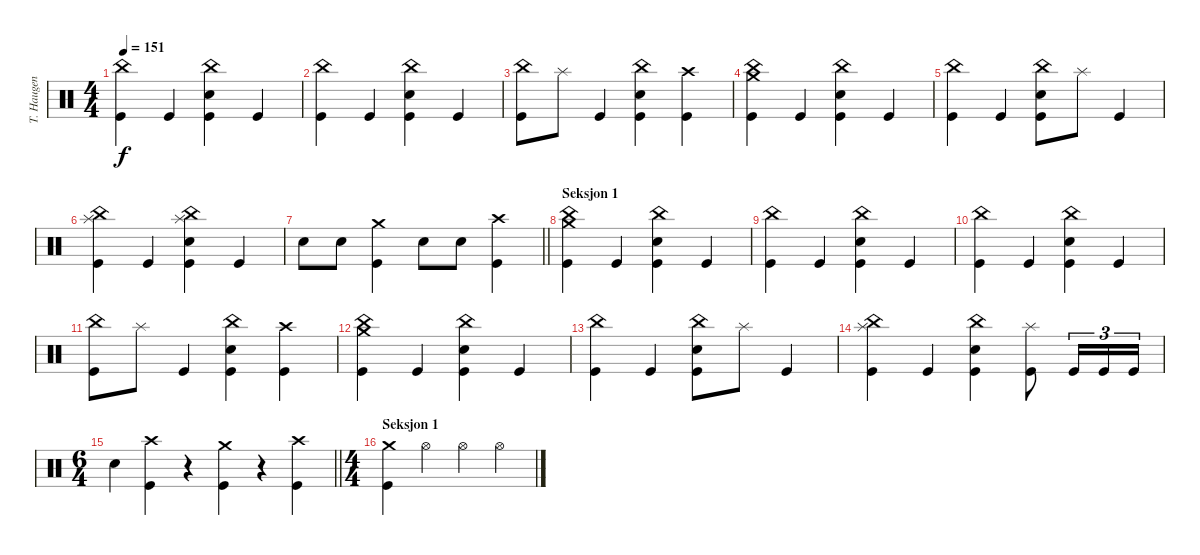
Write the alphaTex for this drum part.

\track ("T. Haugen" "T. Haugen") {instrument percussion}
\staff {score}
\articulation defaults
\ts (4 4)
\tempo 151
\clef neutral
\ks c
("China (hit)" "Kick (hit)").4{dy f} "Kick (hit)".4 ("China (hit)" "Electric Snare (hit)" "Kick (hit)").4 "Kick (hit)".4 |
("China (hit)" "Kick (hit)").4 "Kick (hit)".4 ("China (hit)" "Electric Snare (hit)" "Kick (hit)").4 "Kick (hit)".4 |
("China (hit)" "Kick (hit)").8 "Splash (hit)".8 "Kick (hit)".4 ("China (hit)" "Electric Snare (hit)" "Kick (hit)").4 ("Crash high (hit)" "Kick (hit)").4 |
("Crash medium (hit)" "China (hit)" "Kick (hit)").4 "Kick (hit)".4 ("China (hit)" "Electric Snare (hit)" "Kick (hit)").4 "Kick (hit)".4 |
("China (hit)" "Kick (hit)").4 "Kick (hit)".4 ("China (hit)" "Electric Snare (hit)" "Kick (hit)").8 "Splash (hit)".8 "Kick (hit)".4 |
("Splash (hit)" "China (hit)" "Kick (hit)").4 "Kick (hit)".4 ("Splash (hit)" "China (hit)" "Electric Snare (hit)" "Kick (hit)").4 "Kick (hit)".4 |
\barLineRight lightlight "Electric Snare (hit)".8 "Electric Snare (hit)".8
("Crash medium (hit)" "Kick (hit)").4 "Electric Snare (hit)".8 "Electric Snare (hit)".8 ("Crash high (hit)" "Kick (hit)").4 |
\section ("" "Seksjon 1")
("Crash medium (hit)" "China (hit)" "Kick (hit)").4 "Kick (hit)".4 ("China (hit)" "Electric Snare (hit)" "Kick (hit)").4 "Kick (hit)".4 |
("China (hit)" "Kick (hit)").4 "Kick (hit)".4 ("China (hit)" "Electric Snare (hit)" "Kick (hit)").4 "Kick (hit)".4 |
("China (hit)" "Kick (hit)").4 "Kick (hit)".4 ("China (hit)" "Electric Snare (hit)" "Kick (hit)").4 "Kick (hit)".4 |
("China (hit)" "Kick (hit)").8 "Splash (hit)".8 "Kick (hit)".4 ("China (hit)" "Electric Snare (hit)" "Kick (hit)").4 ("Crash high (hit)" "Kick (hit)").4 |
("Crash medium (hit)" "China (hit)" "Kick (hit)").4 "Kick (hit)".4 ("China (hit)" "Electric Snare (hit)" "Kick (hit)").4 "Kick (hit)".4 |
("China (hit)" "Kick (hit)").4 "Kick (hit)".4 ("China (hit)" "Electric Snare (hit)" "Kick (hit)").8 "Splash (hit)".8 "Kick (hit)".4 |
("Splash (hit)" "China (hit)" "Kick (hit)").4 "Kick (hit)".4 ("China (hit)" "Electric Snare (hit)" "Kick (hit)").4 ("Splash (hit)" "Kick (hit)").8 "Kick (hit)".16{tu (3 2)} "Kick (hit)".16{tu (3 2)} "Kick (hit)".16{tu (3 2)} |
\ts (6 4)
\barLineRight lightlight "Electric Snare (hit)".4
("Crash high (hit)" "Kick (hit)").4 r.4 ("Crash medium (hit)" "Kick (hit)").4 r.4 ("Crash high (hit)" "Kick (hit)").4 |
\ts (4 4)
\section ("" "Seksjon 1")
("Crash medium (hit)" "Kick (hit)").4 "Hi-Hat (open)".4{volume 8} "Hi-Hat (open)".4{volume 16} "Hi-Hat (open)".4
